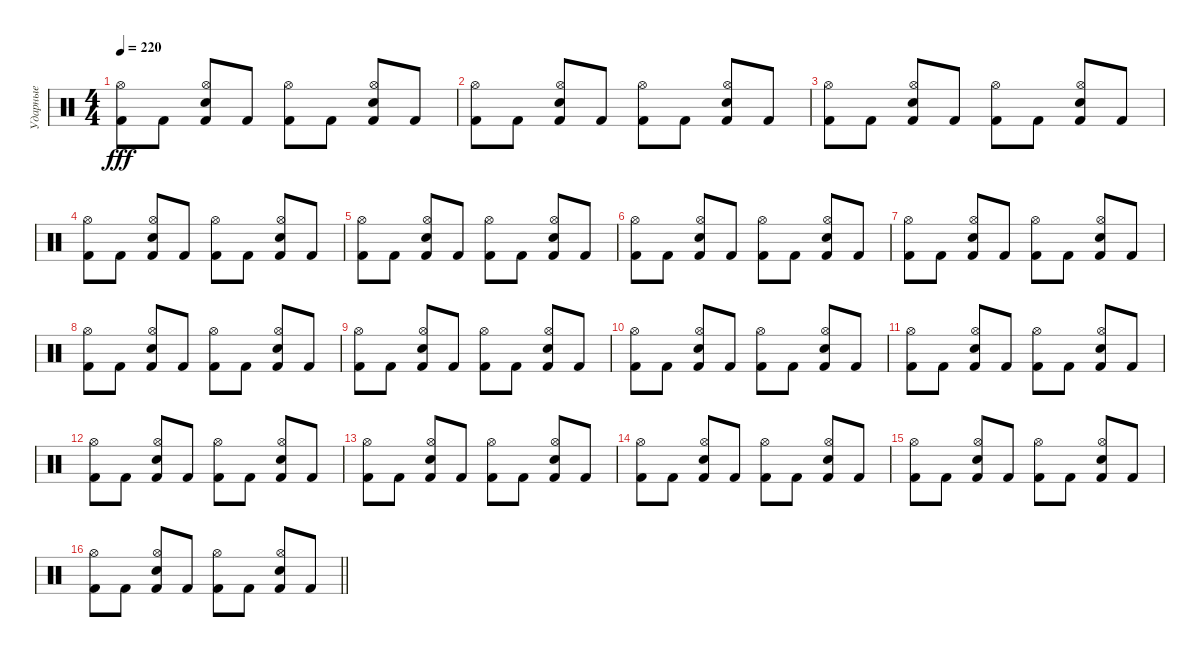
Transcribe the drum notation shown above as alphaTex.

\track ("Ударные" "Ударные") {instrument percussion}
\staff {score}
\articulation defaults
\ts (4 4)
\tempo 220
\clef neutral
\ks c
("Kick (hit) 2" "Hi-Hat (open)").8{dy fff} "Kick (hit) 2".8 ("Kick (hit) 2" "Snare (hit) 2" "Hi-Hat (open)").8 "Kick (hit) 2".8 ("Kick (hit) 2" "Hi-Hat (open)").8 "Kick (hit) 2".8 ("Kick (hit) 2" "Snare (hit) 2" "Hi-Hat (open)").8 "Kick (hit) 2".8 |
("Kick (hit) 2" "Hi-Hat (open)").8 "Kick (hit) 2".8 ("Kick (hit) 2" "Snare (hit) 2" "Hi-Hat (open)").8 "Kick (hit) 2".8 ("Kick (hit) 2" "Hi-Hat (open)").8 "Kick (hit) 2".8 ("Kick (hit) 2" "Snare (hit) 2" "Hi-Hat (open)").8 "Kick (hit) 2".8 |
("Kick (hit) 2" "Hi-Hat (open)").8 "Kick (hit) 2".8 ("Kick (hit) 2" "Snare (hit) 2" "Hi-Hat (open)").8 "Kick (hit) 2".8 ("Kick (hit) 2" "Hi-Hat (open)").8 "Kick (hit) 2".8 ("Kick (hit) 2" "Snare (hit) 2" "Hi-Hat (open)").8 "Kick (hit) 2".8 |
("Kick (hit) 2" "Hi-Hat (open)").8 "Kick (hit) 2".8 ("Kick (hit) 2" "Snare (hit) 2" "Hi-Hat (open)").8 "Kick (hit) 2".8 ("Kick (hit) 2" "Hi-Hat (open)").8 "Kick (hit) 2".8 ("Kick (hit) 2" "Snare (hit) 2" "Hi-Hat (open)").8 "Kick (hit) 2".8 |
("Kick (hit) 2" "Hi-Hat (open)").8 "Kick (hit) 2".8 ("Kick (hit) 2" "Snare (hit) 2" "Hi-Hat (open)").8 "Kick (hit) 2".8 ("Kick (hit) 2" "Hi-Hat (open)").8 "Kick (hit) 2".8 ("Kick (hit) 2" "Snare (hit) 2" "Hi-Hat (open)").8 "Kick (hit) 2".8 |
("Kick (hit) 2" "Hi-Hat (open)").8 "Kick (hit) 2".8 ("Kick (hit) 2" "Snare (hit) 2" "Hi-Hat (open)").8 "Kick (hit) 2".8 ("Kick (hit) 2" "Hi-Hat (open)").8 "Kick (hit) 2".8 ("Kick (hit) 2" "Snare (hit) 2" "Hi-Hat (open)").8 "Kick (hit) 2".8 |
("Kick (hit) 2" "Hi-Hat (open)").8 "Kick (hit) 2".8 ("Kick (hit) 2" "Snare (hit) 2" "Hi-Hat (open)").8 "Kick (hit) 2".8 ("Kick (hit) 2" "Hi-Hat (open)").8 "Kick (hit) 2".8 ("Kick (hit) 2" "Snare (hit) 2" "Hi-Hat (open)").8 "Kick (hit) 2".8 |
("Kick (hit) 2" "Hi-Hat (open)").8 "Kick (hit) 2".8 ("Kick (hit) 2" "Snare (hit) 2" "Hi-Hat (open)").8 "Kick (hit) 2".8 ("Kick (hit) 2" "Hi-Hat (open)").8 "Kick (hit) 2".8 ("Kick (hit) 2" "Snare (hit) 2" "Hi-Hat (open)").8 "Kick (hit) 2".8 |
("Kick (hit) 2" "Hi-Hat (open)").8 "Kick (hit) 2".8 ("Kick (hit) 2" "Snare (hit) 2" "Hi-Hat (open)").8 "Kick (hit) 2".8 ("Kick (hit) 2" "Hi-Hat (open)").8 "Kick (hit) 2".8 ("Kick (hit) 2" "Snare (hit) 2" "Hi-Hat (open)").8 "Kick (hit) 2".8 |
("Kick (hit) 2" "Hi-Hat (open)").8 "Kick (hit) 2".8 ("Kick (hit) 2" "Snare (hit) 2" "Hi-Hat (open)").8 "Kick (hit) 2".8 ("Kick (hit) 2" "Hi-Hat (open)").8 "Kick (hit) 2".8 ("Kick (hit) 2" "Snare (hit) 2" "Hi-Hat (open)").8 "Kick (hit) 2".8 |
("Kick (hit) 2" "Hi-Hat (open)").8 "Kick (hit) 2".8 ("Kick (hit) 2" "Snare (hit) 2" "Hi-Hat (open)").8 "Kick (hit) 2".8 ("Kick (hit) 2" "Hi-Hat (open)").8 "Kick (hit) 2".8 ("Kick (hit) 2" "Snare (hit) 2" "Hi-Hat (open)").8 "Kick (hit) 2".8 |
("Kick (hit) 2" "Hi-Hat (open)").8 "Kick (hit) 2".8 ("Kick (hit) 2" "Snare (hit) 2" "Hi-Hat (open)").8 "Kick (hit) 2".8 ("Kick (hit) 2" "Hi-Hat (open)").8 "Kick (hit) 2".8 ("Kick (hit) 2" "Snare (hit) 2" "Hi-Hat (open)").8 "Kick (hit) 2".8 |
("Kick (hit) 2" "Hi-Hat (open)").8 "Kick (hit) 2".8 ("Kick (hit) 2" "Snare (hit) 2" "Hi-Hat (open)").8 "Kick (hit) 2".8 ("Kick (hit) 2" "Hi-Hat (open)").8 "Kick (hit) 2".8 ("Kick (hit) 2" "Snare (hit) 2" "Hi-Hat (open)").8 "Kick (hit) 2".8 |
("Kick (hit) 2" "Hi-Hat (open)").8 "Kick (hit) 2".8 ("Kick (hit) 2" "Snare (hit) 2" "Hi-Hat (open)").8 "Kick (hit) 2".8 ("Kick (hit) 2" "Hi-Hat (open)").8 "Kick (hit) 2".8 ("Kick (hit) 2" "Snare (hit) 2" "Hi-Hat (open)").8 "Kick (hit) 2".8 |
("Kick (hit) 2" "Hi-Hat (open)").8 "Kick (hit) 2".8 ("Kick (hit) 2" "Snare (hit) 2" "Hi-Hat (open)").8 "Kick (hit) 2".8 ("Kick (hit) 2" "Hi-Hat (open)").8 "Kick (hit) 2".8 ("Kick (hit) 2" "Snare (hit) 2" "Hi-Hat (open)").8 "Kick (hit) 2".8 |
\barLineRight lightlight
("Kick (hit) 2" "Hi-Hat (open)").8 "Kick (hit) 2".8 ("Kick (hit) 2" "Snare (hit) 2" "Hi-Hat (open)").8 "Kick (hit) 2".8 ("Kick (hit) 2" "Hi-Hat (open)").8 "Kick (hit) 2".8 ("Kick (hit) 2" "Snare (hit) 2" "Hi-Hat (open)").8 "Kick (hit) 2".8
